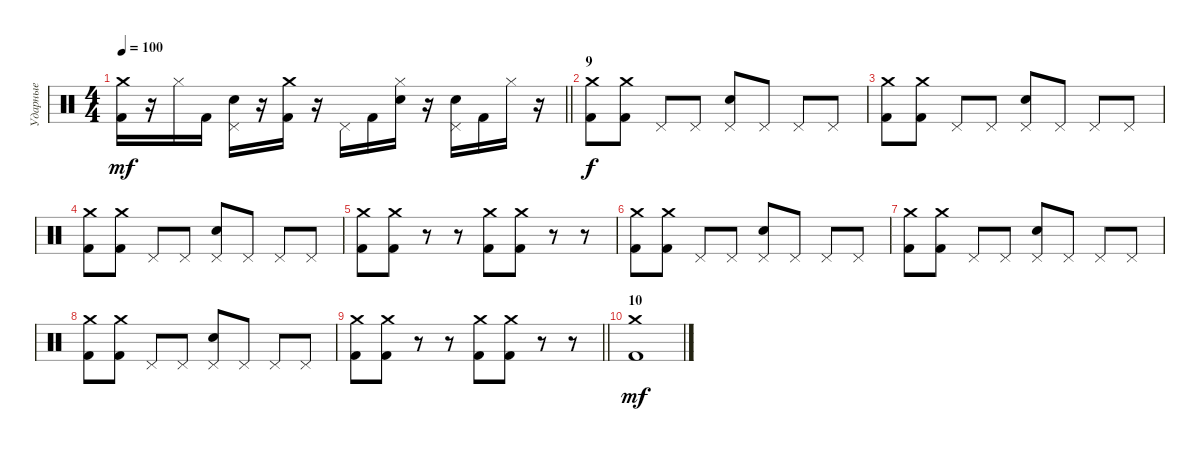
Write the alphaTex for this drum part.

\track ("Ударные" "Ударные") {instrument percussion}
\staff {score}
\articulation defaults
\ts (4 4)
\tempo 100
\clef neutral
\barLineRight lightlight
\ks c
("Crash medium (hit)" "Kick (hit) 2").16{dy mf} r.16 "Hi-Hat (closed)".16 "Kick (hit) 2".16 ("Pedal Hi-Hat (hit)" "Snare (hit) 2").16 r.16 ("Crash medium (hit)" "Kick (hit) 2").16 r.16 "Pedal Hi-Hat (hit)".16 "Kick (hit) 2".16 ("Hi-Hat (closed)" "Snare (hit) 2").16 r.16 ("Pedal Hi-Hat (hit)" "Snare (hit) 2").16 "Kick (hit) 2".16 "Hi-Hat (closed)".16 r.16 |
\section ("" "9")
("Crash medium (hit)" "Kick (hit) 2").8{dy f} ("Crash medium (hit)" "Kick (hit) 2").8 "Pedal Hi-Hat (hit)".8 "Pedal Hi-Hat (hit)".8 ("Pedal Hi-Hat (hit)" "Snare (hit) 2").8 "Pedal Hi-Hat (hit)".8 "Pedal Hi-Hat (hit)".8 "Pedal Hi-Hat (hit)".8 |
("Crash medium (hit)" "Kick (hit) 2").8 ("Crash medium (hit)" "Kick (hit) 2").8 "Pedal Hi-Hat (hit)".8 "Pedal Hi-Hat (hit)".8 ("Pedal Hi-Hat (hit)" "Snare (hit) 2").8 "Pedal Hi-Hat (hit)".8 "Pedal Hi-Hat (hit)".8 "Pedal Hi-Hat (hit)".8 |
("Crash medium (hit)" "Kick (hit) 2").8 ("Crash medium (hit)" "Kick (hit) 2").8 "Pedal Hi-Hat (hit)".8 "Pedal Hi-Hat (hit)".8 ("Pedal Hi-Hat (hit)" "Snare (hit) 2").8 "Pedal Hi-Hat (hit)".8 "Pedal Hi-Hat (hit)".8 "Pedal Hi-Hat (hit)".8 |
("Crash medium (hit)" "Kick (hit) 2").8 ("Crash medium (hit)" "Kick (hit) 2").8 r.8 r.8 ("Crash medium (hit)" "Kick (hit) 2").8 ("Crash medium (hit)" "Kick (hit) 2").8 r.8 r.8 |
("Crash medium (hit)" "Kick (hit) 2").8 ("Crash medium (hit)" "Kick (hit) 2").8 "Pedal Hi-Hat (hit)".8 "Pedal Hi-Hat (hit)".8 ("Pedal Hi-Hat (hit)" "Snare (hit) 2").8 "Pedal Hi-Hat (hit)".8 "Pedal Hi-Hat (hit)".8 "Pedal Hi-Hat (hit)".8 |
("Crash medium (hit)" "Kick (hit) 2").8 ("Crash medium (hit)" "Kick (hit) 2").8 "Pedal Hi-Hat (hit)".8 "Pedal Hi-Hat (hit)".8 ("Pedal Hi-Hat (hit)" "Snare (hit) 2").8 "Pedal Hi-Hat (hit)".8 "Pedal Hi-Hat (hit)".8 "Pedal Hi-Hat (hit)".8 |
("Crash medium (hit)" "Kick (hit) 2").8 ("Crash medium (hit)" "Kick (hit) 2").8 "Pedal Hi-Hat (hit)".8 "Pedal Hi-Hat (hit)".8 ("Pedal Hi-Hat (hit)" "Snare (hit) 2").8 "Pedal Hi-Hat (hit)".8 "Pedal Hi-Hat (hit)".8 "Pedal Hi-Hat (hit)".8 |
\barLineRight lightlight
("Crash medium (hit)" "Kick (hit) 2").8 ("Crash medium (hit)" "Kick (hit) 2").8 r.8 r.8 ("Crash medium (hit)" "Kick (hit) 2").8 ("Crash medium (hit)" "Kick (hit) 2").8 r.8 r.8 |
\section ("" "10")
("Crash medium (hit)" "Kick (hit) 2").1{dy mf}
